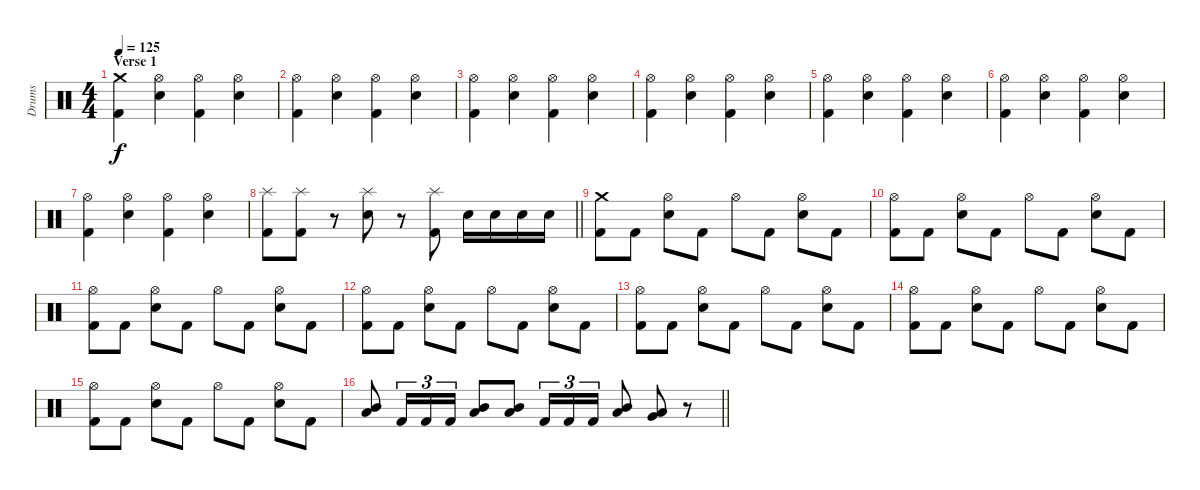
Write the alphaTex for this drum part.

\track ("Drums" "Drums") {instrument percussion}
\staff {score}
\articulation defaults
\ts (4 4)
\section ("" "Verse 1")
\tempo 125
\clef neutral
\ks c
("Crash medium (hit)" "Kick (hit) 2").4{dy f} ("Hi-Hat (open)" "Electric Snare (hit)").4 ("Hi-Hat (open)" "Kick (hit) 2").4 ("Hi-Hat (open)" "Electric Snare (hit)").4 |
("Hi-Hat (open)" "Kick (hit) 2").4 ("Hi-Hat (open)" "Electric Snare (hit)").4 ("Hi-Hat (open)" "Kick (hit) 2").4 ("Hi-Hat (open)" "Electric Snare (hit)").4 |
("Hi-Hat (open)" "Kick (hit) 2").4 ("Hi-Hat (open)" "Electric Snare (hit)").4 ("Hi-Hat (open)" "Kick (hit) 2").4 ("Hi-Hat (open)" "Electric Snare (hit)").4 |
("Hi-Hat (open)" "Kick (hit) 2").4 ("Hi-Hat (open)" "Electric Snare (hit)").4 ("Hi-Hat (open)" "Kick (hit) 2").4 ("Hi-Hat (open)" "Electric Snare (hit)").4 |
("Hi-Hat (open)" "Kick (hit) 2").4 ("Hi-Hat (open)" "Electric Snare (hit)").4 ("Hi-Hat (open)" "Kick (hit) 2").4 ("Hi-Hat (open)" "Electric Snare (hit)").4 |
("Hi-Hat (open)" "Kick (hit) 2").4 ("Hi-Hat (open)" "Electric Snare (hit)").4 ("Hi-Hat (open)" "Kick (hit) 2").4 ("Hi-Hat (open)" "Electric Snare (hit)").4 |
("Hi-Hat (open)" "Kick (hit) 2").4 ("Hi-Hat (open)" "Electric Snare (hit)").4 ("Hi-Hat (open)" "Kick (hit) 2").4 ("Hi-Hat (open)" "Electric Snare (hit)").4 |
\barLineRight lightlight
("Splash (hit)" "Kick (hit) 2").8 ("Splash (hit)" "Kick (hit) 2").8 r.8 ("Splash (hit)" "Electric Snare (hit)").8 r.8 ("Splash (hit)" "Kick (hit) 2").8 "Electric Snare (hit)".16 "Electric Snare (hit)".16 "Electric Snare (hit)".16 "Electric Snare (hit)".16 |
("Crash medium (hit)" "Kick (hit) 2").8 "Kick (hit) 2".8 ("Hi-Hat (open)" "Electric Snare (hit)").8 "Kick (hit) 2".8 "Hi-Hat (open)".8 "Kick (hit) 2".8 ("Hi-Hat (open)" "Electric Snare (hit)").8 "Kick (hit) 2".8 |
("Hi-Hat (open)" "Kick (hit) 2").8 "Kick (hit) 2".8 ("Hi-Hat (open)" "Electric Snare (hit)").8 "Kick (hit) 2".8 "Hi-Hat (open)".8 "Kick (hit) 2".8 ("Hi-Hat (open)" "Electric Snare (hit)").8 "Kick (hit) 2".8 |
("Hi-Hat (open)" "Kick (hit) 2").8 "Kick (hit) 2".8 ("Hi-Hat (open)" "Electric Snare (hit)").8 "Kick (hit) 2".8 "Hi-Hat (open)".8 "Kick (hit) 2".8 ("Hi-Hat (open)" "Electric Snare (hit)").8 "Kick (hit) 2".8 |
("Hi-Hat (open)" "Kick (hit) 2").8 "Kick (hit) 2".8 ("Hi-Hat (open)" "Electric Snare (hit)").8 "Kick (hit) 2".8 "Hi-Hat (open)".8 "Kick (hit) 2".8 ("Hi-Hat (open)" "Electric Snare (hit)").8 "Kick (hit) 2".8 |
("Hi-Hat (open)" "Kick (hit) 2").8 "Kick (hit) 2".8 ("Hi-Hat (open)" "Electric Snare (hit)").8 "Kick (hit) 2".8 "Hi-Hat (open)".8 "Kick (hit) 2".8 ("Hi-Hat (open)" "Electric Snare (hit)").8 "Kick (hit) 2".8 |
("Hi-Hat (open)" "Kick (hit) 2").8 "Kick (hit) 2".8 ("Hi-Hat (open)" "Electric Snare (hit)").8 "Kick (hit) 2".8 "Hi-Hat (open)".8 "Kick (hit) 2".8 ("Hi-Hat (open)" "Electric Snare (hit)").8 "Kick (hit) 2".8 |
("Hi-Hat (open)" "Kick (hit) 2").8 "Kick (hit) 2".8 ("Hi-Hat (open)" "Electric Snare (hit)").8 "Kick (hit) 2".8 "Hi-Hat (open)".8 "Kick (hit) 2".8 ("Hi-Hat (open)" "Electric Snare (hit)").8 "Kick (hit) 2".8 |
\barLineRight lightlight
("Mid Tom (hit)" "Low Tom (hit)").8 "Kick (hit) 2".16{tu (3 2)} "Kick (hit) 2".16{tu (3 2)} "Kick (hit) 2".16{tu (3 2)} ("Mid Tom (hit)" "Low Tom (hit)").8 ("Mid Tom (hit)" "Low Tom (hit)").8 "Kick (hit) 2".16{tu (3 2)} "Kick (hit) 2".16{tu (3 2)} "Kick (hit) 2".16{tu (3 2)} ("Mid Tom (hit)" "Low Tom (hit)").8 ("Low Tom (hit)" "Very Low Tom (hit)").8 r.8
